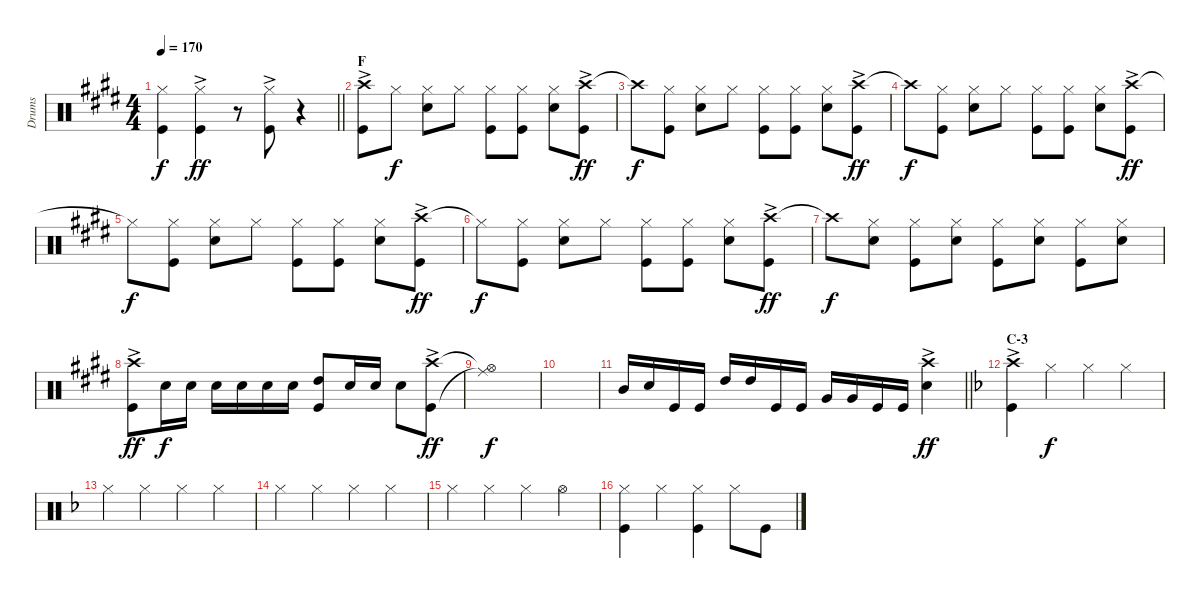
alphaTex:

\track ("Drums" "Drums") {instrument percussion}
\staff {score}
\articulation defaults
\ts (4 4)
\tempo 170
\clef neutral
\barLineRight lightlight
\ks e
("Hi-Hat (closed)" "Kick (hit)").4{dy f} ("Kick (hit)" "Hi-Hat (closed)"{ac}).4{dy ff} r.8 ("Hi-Hat (closed)"{ac} "Kick (hit)").8 r.4 |
\section ("" "F")
("Crash high (hit)"{ac} "Kick (hit)").8 "Hi-Hat (closed)".8{dy f} ("Hi-Hat (closed)" "Snare (hit) 2").8 "Hi-Hat (closed)".8 ("Hi-Hat (closed)" "Kick (hit)").8 ("Kick (hit)" "Hi-Hat (closed)").8 ("Hi-Hat (closed)" "Snare (hit) 2").8 ("Crash high (hit)"{ac} "Kick (hit)").8{dy ff} |
"Crash high (hit)"{t}.8{dy f} ("Hi-Hat (closed)" "Kick (hit)").8 ("Hi-Hat (closed)" "Snare (hit) 2").8 "Hi-Hat (closed)".8 ("Hi-Hat (closed)" "Kick (hit)").8 ("Kick (hit)" "Hi-Hat (closed)").8 ("Hi-Hat (closed)" "Snare (hit) 2").8 ("Crash high (hit)"{ac} "Kick (hit)").8{dy ff} |
"Crash high (hit)"{t}.8{dy f} ("Hi-Hat (closed)" "Kick (hit)").8 ("Hi-Hat (closed)" "Snare (hit) 2").8 "Hi-Hat (closed)".8 ("Hi-Hat (closed)" "Kick (hit)").8 ("Hi-Hat (closed)" "Kick (hit)").8 ("Snare (hit) 2" "Hi-Hat (closed)").8 ("Crash high (hit)"{ac} "Kick (hit)").8{dy ff} |
"Hi-Hat (closed)"{t}.8{dy f} ("Hi-Hat (closed)" "Kick (hit)").8 ("Snare (hit) 2" "Hi-Hat (closed)").8 "Hi-Hat (closed)".8 ("Hi-Hat (closed)" "Kick (hit)").8 ("Kick (hit)" "Hi-Hat (closed)").8 ("Hi-Hat (closed)" "Snare (hit) 2").8 ("Crash high (hit)"{ac} "Kick (hit)").8{dy ff} |
"Hi-Hat (closed)"{t}.8{dy f} ("Kick (hit)" "Hi-Hat (closed)").8 ("Hi-Hat (closed)" "Snare (hit) 2").8 "Hi-Hat (closed)".8 ("Hi-Hat (closed)" "Kick (hit)").8 ("Kick (hit)" "Hi-Hat (closed)").8 ("Hi-Hat (closed)" "Snare (hit) 2").8 ("Crash high (hit)"{ac} "Kick (hit)").8{dy ff} |
"Crash high (hit)"{t}.8{dy f} ("Hi-Hat (closed)" "Snare (hit) 2").8 ("Hi-Hat (closed)" "Kick (hit)").8 ("Hi-Hat (closed)" "Snare (hit) 2").8 ("Hi-Hat (closed)" "Kick (hit)").8 ("Hi-Hat (closed)" "Snare (hit) 2").8 ("Hi-Hat (closed)" "Kick (hit)").8 ("Hi-Hat (closed)" "Snare (hit) 2").8 |
("Crash high (hit)"{ac} "Kick (hit)").8{dy ff} "Snare (hit) 2".16{dy f} "Snare (hit) 2".16 "Snare (hit) 2".16 "Snare (hit) 2".16 "Snare (hit) 2".16 "Snare (hit) 2".16 ("High Tom (hit)" "Kick (hit)").8 "Snare (hit) 2".16 "Snare (hit) 2".16 "Snare (hit) 2".8 ("Kick (hit)" "Crash high (hit)"{ac}).8{dy ff} |
("Ride (middle)"{t} "Hi-Hat (open)"{t}).1{dy f} |
|
\barLineRight lightlight "Mid Tom (hit)".16 "Snare (hit) 2".16 "Kick (hit)".16 "Kick (hit)".16 "High Tom (hit)".16 "High Tom (hit)".16 "Kick (hit)".16 "Kick (hit)".16 "Very Low Tom (hit)".16 "Very Low Tom (hit)".16 "Kick (hit)".16 "Kick (hit)".16
("Snare (hit) 2" "Crash high (hit)"{ac}).4{dy ff} |
\section ("" "C-3")
\ks f
("Crash high (hit)"{ac} "Kick (hit)").4 "Hi-Hat (closed)".4{dy f} "Hi-Hat (closed)".4 "Hi-Hat (closed)".4 |
"Hi-Hat (closed)".4 "Hi-Hat (closed)".4 "Hi-Hat (closed)".4 "Hi-Hat (closed)".4 |
"Hi-Hat (closed)".4 "Hi-Hat (closed)".4 "Hi-Hat (closed)".4 "Hi-Hat (closed)".4 |
"Hi-Hat (closed)".4 "Hi-Hat (closed)".4 "Hi-Hat (closed)".4 "Hi-Hat (open)".4 |
("Kick (hit)" "Hi-Hat (closed)").4 "Hi-Hat (closed)".4 ("Hi-Hat (closed)" "Kick (hit)").4 "Hi-Hat (closed)".8 "Kick (hit)".8
